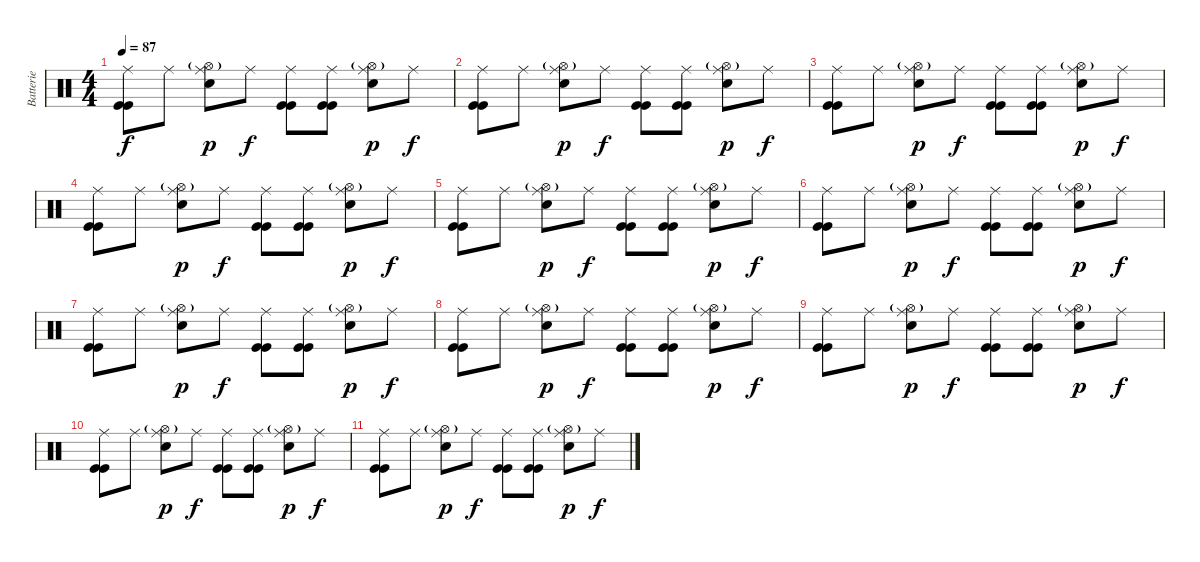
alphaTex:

\track ("Batterie" "Batterie") {instrument percussion}
\staff {score}
\articulation defaults
\ts (4 4)
\tempo 87
\clef neutral
\ks c
("Ride (middle)" "Kick (hit)" "Kick (hit)").8{dy f} "Ride (middle)".8 ("Hi-Hat (open)"{g} "Ride (middle)" "Electric Snare (hit)").8{dy p} "Ride (middle)".8{dy f} ("Ride (middle)" "Kick (hit)" "Kick (hit)").8 ("Ride (middle)" "Kick (hit)" "Kick (hit)").8 ("Hi-Hat (open)"{g} "Ride (middle)" "Electric Snare (hit)").8{dy p} "Ride (middle)".8{dy f} |
("Ride (middle)" "Kick (hit)" "Kick (hit)").8 "Ride (middle)".8 ("Hi-Hat (open)"{g} "Ride (middle)" "Electric Snare (hit)").8{dy p} "Ride (middle)".8{dy f} ("Ride (middle)" "Kick (hit)" "Kick (hit)").8 ("Ride (middle)" "Kick (hit)" "Kick (hit)").8 ("Hi-Hat (open)"{g} "Ride (middle)" "Electric Snare (hit)").8{dy p} "Ride (middle)".8{dy f} |
("Ride (middle)" "Kick (hit)" "Kick (hit)").8 "Ride (middle)".8 ("Hi-Hat (open)"{g} "Ride (middle)" "Electric Snare (hit)").8{dy p} "Ride (middle)".8{dy f} ("Ride (middle)" "Kick (hit)" "Kick (hit)").8 ("Ride (middle)" "Kick (hit)" "Kick (hit)").8 ("Hi-Hat (open)"{g} "Ride (middle)" "Electric Snare (hit)").8{dy p} "Ride (middle)".8{dy f} |
("Ride (middle)" "Kick (hit)" "Kick (hit)").8 "Ride (middle)".8 ("Hi-Hat (open)"{g} "Ride (middle)" "Electric Snare (hit)").8{dy p} "Ride (middle)".8{dy f} ("Ride (middle)" "Kick (hit)" "Kick (hit)").8 ("Ride (middle)" "Kick (hit)" "Kick (hit)").8 ("Hi-Hat (open)"{g} "Ride (middle)" "Electric Snare (hit)").8{dy p} "Ride (middle)".8{dy f} |
("Ride (middle)" "Kick (hit)" "Kick (hit)").8 "Ride (middle)".8 ("Hi-Hat (open)"{g} "Ride (middle)" "Electric Snare (hit)").8{dy p} "Ride (middle)".8{dy f} ("Ride (middle)" "Kick (hit)" "Kick (hit)").8 ("Ride (middle)" "Kick (hit)" "Kick (hit)").8 ("Hi-Hat (open)"{g} "Ride (middle)" "Electric Snare (hit)").8{dy p} "Ride (middle)".8{dy f} |
("Ride (middle)" "Kick (hit)" "Kick (hit)").8 "Ride (middle)".8 ("Hi-Hat (open)"{g} "Ride (middle)" "Electric Snare (hit)").8{dy p} "Ride (middle)".8{dy f} ("Ride (middle)" "Kick (hit)" "Kick (hit)").8 ("Ride (middle)" "Kick (hit)" "Kick (hit)").8 ("Hi-Hat (open)"{g} "Ride (middle)" "Electric Snare (hit)").8{dy p} "Ride (middle)".8{dy f} |
("Ride (middle)" "Kick (hit)" "Kick (hit)").8 "Ride (middle)".8 ("Hi-Hat (open)"{g} "Ride (middle)" "Electric Snare (hit)").8{dy p} "Ride (middle)".8{dy f} ("Ride (middle)" "Kick (hit)" "Kick (hit)").8 ("Ride (middle)" "Kick (hit)" "Kick (hit)").8 ("Hi-Hat (open)"{g} "Ride (middle)" "Electric Snare (hit)").8{dy p} "Ride (middle)".8{dy f} |
("Ride (middle)" "Kick (hit)" "Kick (hit)").8{volume 0} "Ride (middle)".8 ("Hi-Hat (open)"{g} "Ride (middle)" "Electric Snare (hit)").8{dy p} "Ride (middle)".8{dy f} ("Ride (middle)" "Kick (hit)" "Kick (hit)").8 ("Ride (middle)" "Kick (hit)" "Kick (hit)").8 ("Hi-Hat (open)"{g} "Ride (middle)" "Electric Snare (hit)").8{dy p} "Ride (middle)".8{dy f} |
("Ride (middle)" "Kick (hit)" "Kick (hit)").8 "Ride (middle)".8 ("Hi-Hat (open)"{g} "Ride (middle)" "Electric Snare (hit)").8{dy p} "Ride (middle)".8{dy f} ("Ride (middle)" "Kick (hit)" "Kick (hit)").8 ("Ride (middle)" "Kick (hit)" "Kick (hit)").8 ("Hi-Hat (open)"{g} "Ride (middle)" "Electric Snare (hit)").8{dy p} "Ride (middle)".8{dy f} |
("Ride (middle)" "Kick (hit)" "Kick (hit)").8 "Ride (middle)".8 ("Hi-Hat (open)"{g} "Ride (middle)" "Electric Snare (hit)").8{dy p} "Ride (middle)".8{dy f} ("Ride (middle)" "Kick (hit)" "Kick (hit)").8 ("Ride (middle)" "Kick (hit)" "Kick (hit)").8 ("Hi-Hat (open)"{g} "Ride (middle)" "Electric Snare (hit)").8{dy p} "Ride (middle)".8{dy f} |
("Ride (middle)" "Kick (hit)" "Kick (hit)").8 "Ride (middle)".8 ("Hi-Hat (open)"{g} "Ride (middle)" "Electric Snare (hit)").8{dy p} "Ride (middle)".8{dy f} ("Ride (middle)" "Kick (hit)" "Kick (hit)").8 ("Ride (middle)" "Kick (hit)" "Kick (hit)").8 ("Hi-Hat (open)"{g} "Ride (middle)" "Electric Snare (hit)").8{dy p} "Ride (middle)".8{dy f}
